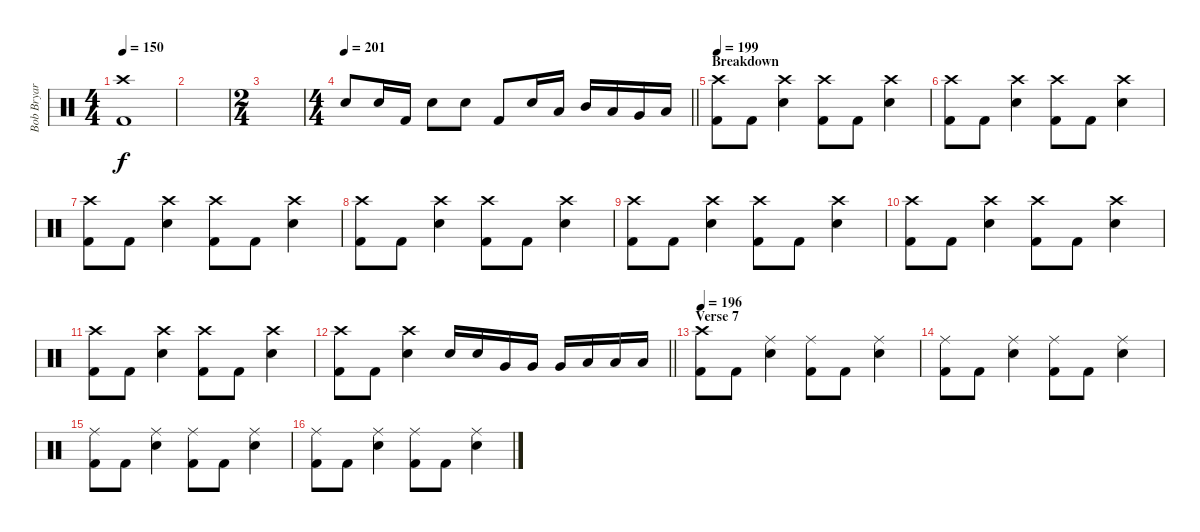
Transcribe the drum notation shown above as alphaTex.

\track ("Bob Bryar (percussion)" "Bob Bryar ") {instrument percussion}
\staff {score}
\articulation defaults
\ts (4 4)
\tempo 150
\clef neutral
\ks c
("Crash high (hit)" "Kick (hit) 2").1{dy f} |
|
\ts (2 4)
|
\ts (4 4)
\tempo 201
\barLineRight lightlight "Electric Snare (hit)".8{volume 16} "Electric Snare (hit)".16 "Kick (hit) 2".16 "Electric Snare (hit)".8 "Electric Snare (hit)".8 "Kick (hit) 2".8 "Electric Snare (hit)".16 "Low Tom (hit)".16 "Mid Tom (hit)".16 "Low Tom (hit)".16 "Very Low Tom (hit)".16 "Low Floor Tom (hit)".16
|
\section ("" "Breakdown")
\tempo 199
("Crash high (hit)" "Kick (hit) 2").8 "Kick (hit) 2".8 ("Crash high (hit)" "Electric Snare (hit)").4 ("Crash high (hit)" "Kick (hit) 2").8 "Kick (hit) 2".8 ("Crash high (hit)" "Electric Snare (hit)").4 |
("Crash high (hit)" "Kick (hit) 2").8 "Kick (hit) 2".8 ("Crash high (hit)" "Electric Snare (hit)").4 ("Crash high (hit)" "Kick (hit) 2").8 "Kick (hit) 2".8 ("Crash high (hit)" "Electric Snare (hit)").4 |
("Crash high (hit)" "Kick (hit) 2").8 "Kick (hit) 2".8 ("Crash high (hit)" "Electric Snare (hit)").4 ("Crash high (hit)" "Kick (hit) 2").8 "Kick (hit) 2".8 ("Crash high (hit)" "Electric Snare (hit)").4 |
("Crash high (hit)" "Kick (hit) 2").8 "Kick (hit) 2".8 ("Crash high (hit)" "Electric Snare (hit)").4 ("Crash high (hit)" "Kick (hit) 2").8 "Kick (hit) 2".8 ("Crash high (hit)" "Electric Snare (hit)").4 |
("Crash high (hit)" "Kick (hit) 2").8 "Kick (hit) 2".8 ("Crash high (hit)" "Electric Snare (hit)").4 ("Crash high (hit)" "Kick (hit) 2").8 "Kick (hit) 2".8 ("Crash high (hit)" "Electric Snare (hit)").4 |
("Crash high (hit)" "Kick (hit) 2").8 "Kick (hit) 2".8 ("Crash high (hit)" "Electric Snare (hit)").4 ("Crash high (hit)" "Kick (hit) 2").8 "Kick (hit) 2".8 ("Crash high (hit)" "Electric Snare (hit)").4 |
("Crash high (hit)" "Kick (hit) 2").8 "Kick (hit) 2".8 ("Crash high (hit)" "Electric Snare (hit)").4 ("Crash high (hit)" "Kick (hit) 2").8 "Kick (hit) 2".8 ("Crash high (hit)" "Electric Snare (hit)").4 |
\barLineRight lightlight
("Crash high (hit)" "Kick (hit) 2").8 "Kick (hit) 2".8 ("Crash high (hit)" "Electric Snare (hit)").4 "Electric Snare (hit)".16 "Electric Snare (hit)".16 "Very Low Tom (hit)".16 "Very Low Tom (hit)".16 "Very Low Tom (hit)".16 "Low Floor Tom (hit)".16 "Low Floor Tom (hit)".16 "Low Floor Tom (hit)".16 |
\section ("" "Verse 7")
\tempo 196
("Crash high (hit)" "Kick (hit) 2").8 "Kick (hit) 2".8 ("Ride (middle)" "Electric Snare (hit)").4 ("Ride (middle)" "Kick (hit) 2").8 "Kick (hit) 2".8 ("Ride (middle)" "Electric Snare (hit)").4 |
("Ride (middle)" "Kick (hit) 2").8 "Kick (hit) 2".8 ("Ride (middle)" "Electric Snare (hit)").4 ("Ride (middle)" "Kick (hit) 2").8 "Kick (hit) 2".8 ("Ride (middle)" "Electric Snare (hit)").4 |
("Ride (middle)" "Kick (hit) 2").8 "Kick (hit) 2".8 ("Ride (middle)" "Electric Snare (hit)").4 ("Ride (middle)" "Kick (hit) 2").8 "Kick (hit) 2".8 ("Ride (middle)" "Electric Snare (hit)").4 |
("Ride (middle)" "Kick (hit) 2").8 "Kick (hit) 2".8 ("Ride (middle)" "Electric Snare (hit)").4 ("Ride (middle)" "Kick (hit) 2").8 "Kick (hit) 2".8 ("Ride (middle)" "Electric Snare (hit)").4
